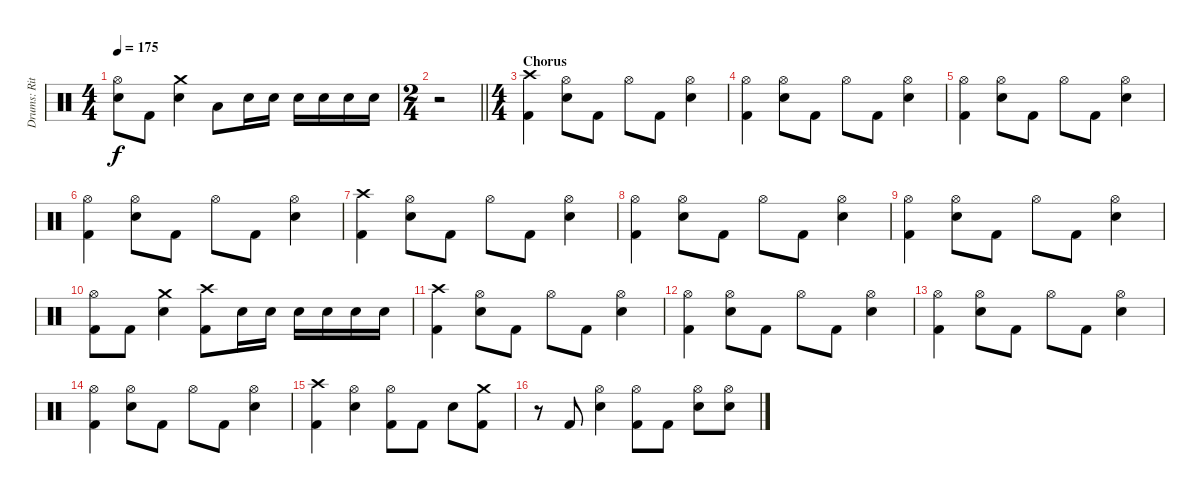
\track ("Drums: Ritsu Tainaka" "Drums: Rit") {instrument percussion}
\staff {score}
\articulation defaults
\ts (4 4)
\tempo 175
\clef neutral
\ks c
("Hi-Hat (open)" "Snare (hit) 2").8{dy f} "Kick (hit) 2".8 ("Crash medium (hit)" "Snare (hit) 2").4 "Low Tom (hit)".8 "Snare (hit) 2".16 "Snare (hit) 2".16 "Snare (hit) 2".16 "Snare (hit) 2".16 "Snare (hit) 2".16 "Snare (hit) 2".16 |
\ts (2 4)
\barLineRight lightlight
r.2{volume 0} |
\ts (4 4)
\section ("" "Chorus")
("Crash high (hit)" "Kick (hit) 2").4{volume 16} ("Hi-Hat (open)" "Snare (hit) 2").8 "Kick (hit) 2".8 "Hi-Hat (open)".8 "Kick (hit) 2".8 ("Hi-Hat (open)" "Snare (hit) 2").4 |
("Hi-Hat (open)" "Kick (hit) 2").4 ("Hi-Hat (open)" "Snare (hit) 2").8 "Kick (hit) 2".8 "Hi-Hat (open)".8 "Kick (hit) 2".8 ("Hi-Hat (open)" "Snare (hit) 2").4 |
("Hi-Hat (open)" "Kick (hit) 2").4 ("Hi-Hat (open)" "Snare (hit) 2").8 "Kick (hit) 2".8 "Hi-Hat (open)".8 "Kick (hit) 2".8 ("Hi-Hat (open)" "Snare (hit) 2").4 |
("Hi-Hat (open)" "Kick (hit) 2").4 ("Hi-Hat (open)" "Snare (hit) 2").8 "Kick (hit) 2".8 "Hi-Hat (open)".8 "Kick (hit) 2".8 ("Hi-Hat (open)" "Snare (hit) 2").4 |
("Crash high (hit)" "Kick (hit) 2").4 ("Hi-Hat (open)" "Snare (hit) 2").8 "Kick (hit) 2".8 "Hi-Hat (open)".8 "Kick (hit) 2".8 ("Hi-Hat (open)" "Snare (hit) 2").4 |
("Hi-Hat (open)" "Kick (hit) 2").4 ("Hi-Hat (open)" "Snare (hit) 2").8 "Kick (hit) 2".8 "Hi-Hat (open)".8 "Kick (hit) 2".8 ("Hi-Hat (open)" "Snare (hit) 2").4 |
("Hi-Hat (open)" "Kick (hit) 2").4 ("Hi-Hat (open)" "Snare (hit) 2").8 "Kick (hit) 2".8 "Hi-Hat (open)".8 "Kick (hit) 2".8 ("Hi-Hat (open)" "Snare (hit) 2").4 |
("Hi-Hat (open)" "Kick (hit) 2").8 "Kick (hit) 2".8 ("Crash medium (hit)" "Snare (hit) 2").4 ("Crash high (hit)" "Kick (hit) 2").8 "Snare (hit) 2".16 "Snare (hit) 2".16 "Snare (hit) 2".16 "Snare (hit) 2".16 "Snare (hit) 2".16 "Snare (hit) 2".16 |
("Crash high (hit)" "Kick (hit) 2").4 ("Hi-Hat (open)" "Snare (hit) 2").8 "Kick (hit) 2".8 "Hi-Hat (open)".8 "Kick (hit) 2".8 ("Hi-Hat (open)" "Snare (hit) 2").4 |
("Hi-Hat (open)" "Kick (hit) 2").4 ("Hi-Hat (open)" "Snare (hit) 2").8 "Kick (hit) 2".8 "Hi-Hat (open)".8 "Kick (hit) 2".8 ("Hi-Hat (open)" "Snare (hit) 2").4 |
("Hi-Hat (open)" "Kick (hit) 2").4 ("Hi-Hat (open)" "Snare (hit) 2").8 "Kick (hit) 2".8 "Hi-Hat (open)".8 "Kick (hit) 2".8 ("Hi-Hat (open)" "Snare (hit) 2").4 |
("Hi-Hat (open)" "Kick (hit) 2").4 ("Hi-Hat (open)" "Snare (hit) 2").8 "Kick (hit) 2".8 "Hi-Hat (open)".8 "Kick (hit) 2".8 ("Hi-Hat (open)" "Snare (hit) 2").4 |
("Crash high (hit)" "Kick (hit) 2").4 ("Hi-Hat (open)" "Snare (hit) 2").4 ("Hi-Hat (open)" "Kick (hit) 2").8 "Kick (hit) 2".8 "Snare (hit) 2".8 ("Crash medium (hit)" "Kick (hit) 2").8 |
r.8 "Kick (hit) 2".8 ("Hi-Hat (open)" "Snare (hit) 2").4 ("Hi-Hat (open)" "Kick (hit) 2").8 "Kick (hit) 2".8 ("Hi-Hat (open)" "Snare (hit) 2").8 ("Hi-Hat (open)" "Snare (hit) 2").8
